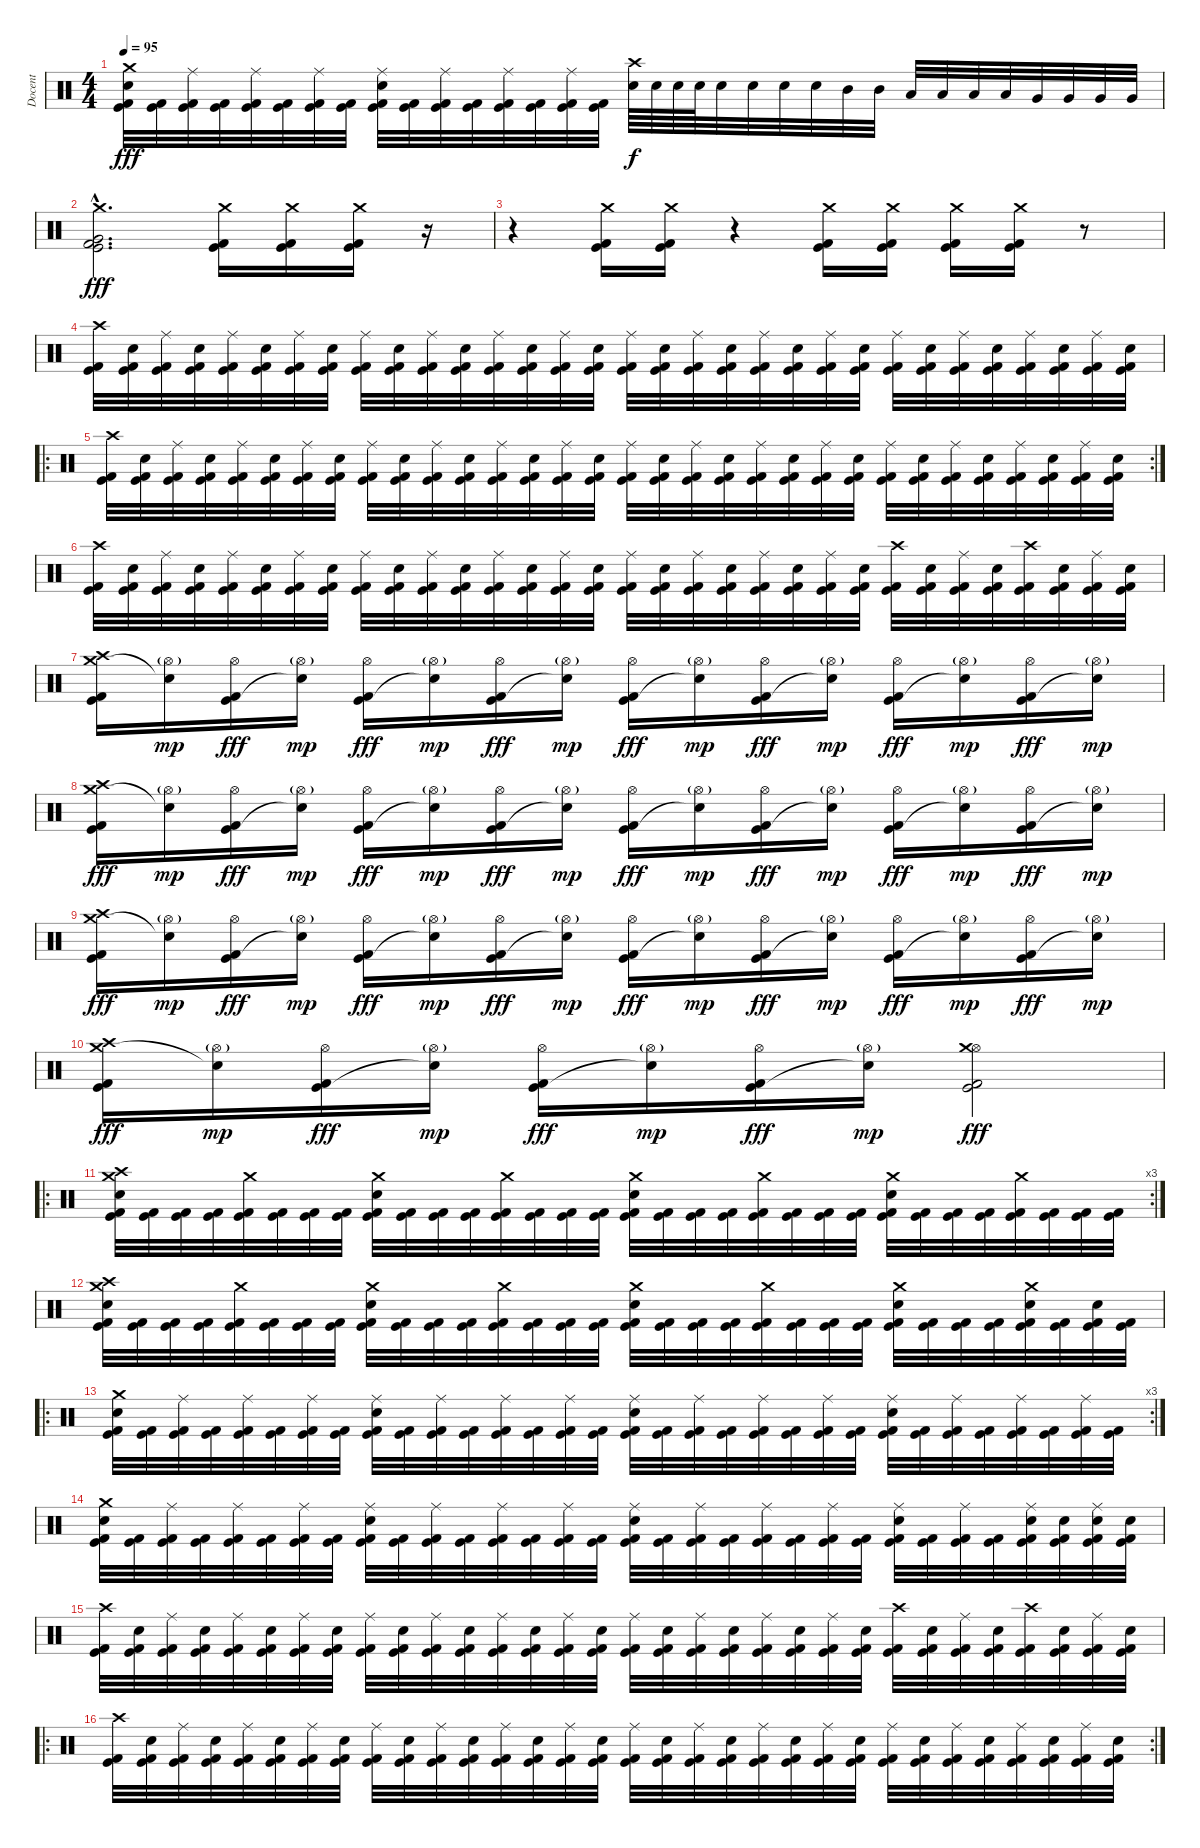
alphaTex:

\track ("Docent" "Docent") {instrument percussion}
\staff {score}
\articulation defaults
\ts (4 4)
\tempo 95
\clef neutral
\ks c
("Crash medium (hit)" "Electric Snare (hit)" "Kick (hit)" "Kick (hit) 2").32{dy fff} ("Kick (hit)" "Kick (hit) 2").32 ("Ride (middle)" "Kick (hit)" "Kick (hit) 2").32 ("Kick (hit)" "Kick (hit) 2").32 ("Ride (middle)" "Kick (hit)" "Kick (hit) 2").32 ("Kick (hit)" "Kick (hit) 2").32 ("Ride (middle)" "Kick (hit)" "Kick (hit) 2").32 ("Kick (hit)" "Kick (hit) 2").32 ("Ride (middle)" "Electric Snare (hit)" "Kick (hit)" "Kick (hit) 2").32 ("Kick (hit)" "Kick (hit) 2").32 ("Ride (middle)" "Kick (hit)" "Kick (hit) 2").32 ("Kick (hit)" "Kick (hit) 2").32 ("Ride (middle)" "Kick (hit)" "Kick (hit) 2").32 ("Kick (hit)" "Kick (hit) 2").32 ("Ride (middle)" "Kick (hit)" "Kick (hit) 2").32 ("Kick (hit)" "Kick (hit) 2").32 ("Crash high (hit)" "Electric Snare (hit)").64{dy f} "Electric Snare (hit)".64 "Electric Snare (hit)".64 "Electric Snare (hit)".64 "Electric Snare (hit)".32 "Electric Snare (hit)".32 "Electric Snare (hit)".32 "Electric Snare (hit)".32 "Mid Tom (hit)".32 "Mid Tom (hit)".32 "Low Tom (hit)".32 "Low Tom (hit)".32 "Low Tom (hit)".32 "Low Tom (hit)".32 "Very Low Tom (hit)".32 "Very Low Tom (hit)".32 "Very Low Tom (hit)".32 "Very Low Tom (hit)".32 |
("Crash medium (hit)"{hac} "Very Low Tom (hit)"{hac} "Kick (hit) 2"{hac} "Kick (hit)"{hac}).2{d dy fff} ("Crash medium (hit)" "Kick (hit)" "Kick (hit) 2").16 ("Crash medium (hit)" "Kick (hit)" "Kick (hit) 2").16 ("Crash medium (hit)" "Kick (hit)" "Kick (hit) 2").16 r.16 |
r.4 ("Kick (hit) 2" "Kick (hit)" "Crash medium (hit)").16 ("Kick (hit) 2" "Kick (hit)" "Crash medium (hit)").16 r.4 ("Crash medium (hit)" "Kick (hit)" "Kick (hit) 2").16 ("Crash medium (hit)" "Kick (hit)" "Kick (hit) 2").16 ("Crash medium (hit)" "Kick (hit)" "Kick (hit) 2").16 ("Crash medium (hit)" "Kick (hit)" "Kick (hit) 2").16 r.8 |
("Crash high (hit)" "Kick (hit)" "Kick (hit) 2").32 ("Electric Snare (hit)" "Kick (hit)" "Kick (hit) 2").32 ("Ride (middle)" "Kick (hit)" "Kick (hit) 2").32 ("Electric Snare (hit)" "Kick (hit)" "Kick (hit) 2").32 ("Ride (middle)" "Kick (hit)" "Kick (hit) 2").32 ("Electric Snare (hit)" "Kick (hit)" "Kick (hit) 2").32 ("Ride (middle)" "Kick (hit)" "Kick (hit) 2").32 ("Electric Snare (hit)" "Kick (hit)" "Kick (hit) 2").32 ("Ride (middle)" "Kick (hit)" "Kick (hit) 2").32 ("Electric Snare (hit)" "Kick (hit)" "Kick (hit) 2").32 ("Ride (middle)" "Kick (hit)" "Kick (hit) 2").32 ("Electric Snare (hit)" "Kick (hit)" "Kick (hit) 2").32 ("Ride (middle)" "Kick (hit)" "Kick (hit) 2").32 ("Electric Snare (hit)" "Kick (hit)" "Kick (hit) 2").32 ("Ride (middle)" "Kick (hit)" "Kick (hit) 2").32 ("Electric Snare (hit)" "Kick (hit)" "Kick (hit) 2").32 ("Ride (middle)" "Kick (hit)" "Kick (hit) 2").32 ("Electric Snare (hit)" "Kick (hit)" "Kick (hit) 2").32 ("Ride (middle)" "Kick (hit)" "Kick (hit) 2").32 ("Electric Snare (hit)" "Kick (hit)" "Kick (hit) 2").32 ("Ride (middle)" "Kick (hit)" "Kick (hit) 2").32 ("Electric Snare (hit)" "Kick (hit)" "Kick (hit) 2").32 ("Ride (middle)" "Kick (hit)" "Kick (hit) 2").32 ("Electric Snare (hit)" "Kick (hit)" "Kick (hit) 2").32 ("Ride (middle)" "Kick (hit)" "Kick (hit) 2").32 ("Electric Snare (hit)" "Kick (hit)" "Kick (hit) 2").32 ("Ride (middle)" "Kick (hit)" "Kick (hit) 2").32 ("Electric Snare (hit)" "Kick (hit)" "Kick (hit) 2").32 ("Ride (middle)" "Kick (hit)" "Kick (hit) 2").32 ("Electric Snare (hit)" "Kick (hit)" "Kick (hit) 2").32 ("Ride (middle)" "Kick (hit)" "Kick (hit) 2").32 ("Electric Snare (hit)" "Kick (hit)" "Kick (hit) 2").32 |
\ro
\rc 2
("Crash high (hit)" "Kick (hit)" "Kick (hit) 2").32 ("Electric Snare (hit)" "Kick (hit)" "Kick (hit) 2").32 ("Ride (middle)" "Kick (hit)" "Kick (hit) 2").32 ("Electric Snare (hit)" "Kick (hit)" "Kick (hit) 2").32 ("Ride (middle)" "Kick (hit)" "Kick (hit) 2").32 ("Electric Snare (hit)" "Kick (hit)" "Kick (hit) 2").32 ("Ride (middle)" "Kick (hit)" "Kick (hit) 2").32 ("Electric Snare (hit)" "Kick (hit)" "Kick (hit) 2").32 ("Ride (middle)" "Kick (hit)" "Kick (hit) 2").32 ("Electric Snare (hit)" "Kick (hit)" "Kick (hit) 2").32 ("Ride (middle)" "Kick (hit)" "Kick (hit) 2").32 ("Electric Snare (hit)" "Kick (hit)" "Kick (hit) 2").32 ("Ride (middle)" "Kick (hit)" "Kick (hit) 2").32 ("Electric Snare (hit)" "Kick (hit)" "Kick (hit) 2").32 ("Ride (middle)" "Kick (hit)" "Kick (hit) 2").32 ("Electric Snare (hit)" "Kick (hit)" "Kick (hit) 2").32 ("Ride (middle)" "Kick (hit)" "Kick (hit) 2").32 ("Electric Snare (hit)" "Kick (hit)" "Kick (hit) 2").32 ("Ride (middle)" "Kick (hit)" "Kick (hit) 2").32 ("Electric Snare (hit)" "Kick (hit)" "Kick (hit) 2").32 ("Ride (middle)" "Kick (hit)" "Kick (hit) 2").32 ("Electric Snare (hit)" "Kick (hit)" "Kick (hit) 2").32 ("Ride (middle)" "Kick (hit)" "Kick (hit) 2").32 ("Electric Snare (hit)" "Kick (hit)" "Kick (hit) 2").32 ("Ride (middle)" "Kick (hit)" "Kick (hit) 2").32 ("Electric Snare (hit)" "Kick (hit)" "Kick (hit) 2").32 ("Ride (middle)" "Kick (hit)" "Kick (hit) 2").32 ("Electric Snare (hit)" "Kick (hit)" "Kick (hit) 2").32 ("Ride (middle)" "Kick (hit)" "Kick (hit) 2").32 ("Electric Snare (hit)" "Kick (hit)" "Kick (hit) 2").32 ("Ride (middle)" "Kick (hit)" "Kick (hit) 2").32 ("Electric Snare (hit)" "Kick (hit)" "Kick (hit) 2").32 |
("Crash high (hit)" "Kick (hit)" "Kick (hit) 2").32 ("Electric Snare (hit)" "Kick (hit)" "Kick (hit) 2").32 ("Ride (middle)" "Kick (hit)" "Kick (hit) 2").32 ("Electric Snare (hit)" "Kick (hit)" "Kick (hit) 2").32 ("Ride (middle)" "Kick (hit)" "Kick (hit) 2").32 ("Electric Snare (hit)" "Kick (hit)" "Kick (hit) 2").32 ("Ride (middle)" "Kick (hit)" "Kick (hit) 2").32 ("Electric Snare (hit)" "Kick (hit)" "Kick (hit) 2").32 ("Ride (middle)" "Kick (hit)" "Kick (hit) 2").32 ("Electric Snare (hit)" "Kick (hit)" "Kick (hit) 2").32 ("Ride (middle)" "Kick (hit)" "Kick (hit) 2").32 ("Electric Snare (hit)" "Kick (hit)" "Kick (hit) 2").32 ("Ride (middle)" "Kick (hit)" "Kick (hit) 2").32 ("Electric Snare (hit)" "Kick (hit)" "Kick (hit) 2").32 ("Ride (middle)" "Kick (hit)" "Kick (hit) 2").32 ("Electric Snare (hit)" "Kick (hit)" "Kick (hit) 2").32 ("Ride (middle)" "Kick (hit)" "Kick (hit) 2").32 ("Electric Snare (hit)" "Kick (hit)" "Kick (hit) 2").32 ("Ride (middle)" "Kick (hit)" "Kick (hit) 2").32 ("Electric Snare (hit)" "Kick (hit)" "Kick (hit) 2").32 ("Ride (middle)" "Kick (hit)" "Kick (hit) 2").32 ("Electric Snare (hit)" "Kick (hit)" "Kick (hit) 2").32 ("Ride (middle)" "Kick (hit)" "Kick (hit) 2").32 ("Electric Snare (hit)" "Kick (hit)" "Kick (hit) 2").32 ("Crash high (hit)" "Kick (hit)" "Kick (hit) 2").32 ("Electric Snare (hit)" "Kick (hit)" "Kick (hit) 2").32 ("Ride (middle)" "Kick (hit)" "Kick (hit) 2").32 ("Electric Snare (hit)" "Kick (hit)" "Kick (hit) 2").32 ("Crash high (hit)" "Kick (hit)" "Kick (hit) 2").32 ("Electric Snare (hit)" "Kick (hit)" "Kick (hit) 2").32 ("Ride (middle)" "Kick (hit)" "Kick (hit) 2").32 ("Electric Snare (hit)" "Kick (hit)" "Kick (hit) 2").32 |
("Crash high (hit)" "Crash medium (hit)" "Kick (hit)" "Kick (hit) 2").16 ("Hi-Hat (open)"{g} "Snare (hit)"{t}).16{dy mp} ("Hi-Hat (open)" "Kick (hit)" "Kick (hit) 2").16{dy fff} ("Hi-Hat (open)"{g} "Snare (hit)"{t}).16{dy mp} ("Hi-Hat (open)" "Kick (hit)" "Kick (hit) 2").16{dy fff} ("Hi-Hat (open)"{g} "Snare (hit)"{t}).16{dy mp} ("Hi-Hat (open)" "Kick (hit)" "Kick (hit) 2").16{dy fff} ("Hi-Hat (open)"{g} "Snare (hit)"{t}).16{dy mp} ("Hi-Hat (open)" "Kick (hit)" "Kick (hit) 2").16{dy fff} ("Hi-Hat (open)"{g} "Snare (hit)"{t}).16{dy mp} ("Hi-Hat (open)" "Kick (hit)" "Kick (hit) 2").16{dy fff} ("Hi-Hat (open)"{g} "Snare (hit)"{t}).16{dy mp} ("Hi-Hat (open)" "Kick (hit)" "Kick (hit) 2").16{dy fff} ("Hi-Hat (open)"{g} "Snare (hit)"{t}).16{dy mp} ("Hi-Hat (open)" "Kick (hit)" "Kick (hit) 2").16{dy fff} ("Hi-Hat (open)"{g} "Snare (hit)"{t}).16{dy mp} |
("Crash high (hit)" "Crash medium (hit)" "Kick (hit)" "Kick (hit) 2").16{dy fff} ("Hi-Hat (open)"{g} "Snare (hit)"{t}).16{dy mp} ("Hi-Hat (open)" "Kick (hit)" "Kick (hit) 2").16{dy fff} ("Hi-Hat (open)"{g} "Snare (hit)"{t}).16{dy mp} ("Hi-Hat (open)" "Kick (hit)" "Kick (hit) 2").16{dy fff} ("Hi-Hat (open)"{g} "Snare (hit)"{t}).16{dy mp} ("Hi-Hat (open)" "Kick (hit)" "Kick (hit) 2").16{dy fff} ("Hi-Hat (open)"{g} "Snare (hit)"{t}).16{dy mp} ("Hi-Hat (open)" "Kick (hit)" "Kick (hit) 2").16{dy fff} ("Hi-Hat (open)"{g} "Snare (hit)"{t}).16{dy mp} ("Hi-Hat (open)" "Kick (hit)" "Kick (hit) 2").16{dy fff} ("Hi-Hat (open)"{g} "Snare (hit)"{t}).16{dy mp} ("Hi-Hat (open)" "Kick (hit)" "Kick (hit) 2").16{dy fff} ("Hi-Hat (open)"{g} "Snare (hit)"{t}).16{dy mp} ("Hi-Hat (open)" "Kick (hit)" "Kick (hit) 2").16{dy fff} ("Hi-Hat (open)"{g} "Snare (hit)"{t}).16{dy mp} |
("Crash high (hit)" "Crash medium (hit)" "Kick (hit)" "Kick (hit) 2").16{dy fff} ("Hi-Hat (open)"{g} "Snare (hit)"{t}).16{dy mp} ("Hi-Hat (open)" "Kick (hit)" "Kick (hit) 2").16{dy fff} ("Hi-Hat (open)"{g} "Snare (hit)"{t}).16{dy mp} ("Hi-Hat (open)" "Kick (hit)" "Kick (hit) 2").16{dy fff} ("Hi-Hat (open)"{g} "Snare (hit)"{t}).16{dy mp} ("Hi-Hat (open)" "Kick (hit)" "Kick (hit) 2").16{dy fff} ("Hi-Hat (open)"{g} "Snare (hit)"{t}).16{dy mp} ("Hi-Hat (open)" "Kick (hit)" "Kick (hit) 2").16{dy fff} ("Hi-Hat (open)"{g} "Snare (hit)"{t}).16{dy mp} ("Hi-Hat (open)" "Kick (hit)" "Kick (hit) 2").16{dy fff} ("Hi-Hat (open)"{g} "Snare (hit)"{t}).16{dy mp} ("Hi-Hat (open)" "Kick (hit)" "Kick (hit) 2").16{dy fff} ("Hi-Hat (open)"{g} "Snare (hit)"{t}).16{dy mp} ("Hi-Hat (open)" "Kick (hit)" "Kick (hit) 2").16{dy fff} ("Hi-Hat (open)"{g} "Snare (hit)"{t}).16{dy mp} |
("Crash high (hit)" "Crash medium (hit)" "Kick (hit)" "Kick (hit) 2").16{dy fff} ("Hi-Hat (open)"{g} "Snare (hit)"{t}).16{dy mp} ("Hi-Hat (open)" "Kick (hit)" "Kick (hit) 2").16{dy fff} ("Hi-Hat (open)"{g} "Snare (hit)"{t}).16{dy mp} ("Hi-Hat (open)" "Kick (hit)" "Kick (hit) 2").16{dy fff} ("Hi-Hat (open)"{g} "Snare (hit)"{t}).16{dy mp} ("Hi-Hat (open)" "Kick (hit)" "Kick (hit) 2").16{dy fff} ("Hi-Hat (open)"{g} "Snare (hit)"{t}).16{dy mp} ("Hi-Hat (open)" "Crash medium (hit)" "Kick (hit)" "Kick (hit) 2").2{dy fff} |
\ro
\rc 3
("Crash medium (hit)" "Crash high (hit)" "Electric Snare (hit)" "Kick (hit)" "Kick (hit) 2").32 ("Kick (hit)" "Kick (hit) 2").32 ("Kick (hit)" "Kick (hit) 2").32 ("Kick (hit)" "Kick (hit) 2").32 ("Crash medium (hit)" "Kick (hit)" "Kick (hit) 2").32 ("Kick (hit)" "Kick (hit) 2").32 ("Kick (hit)" "Kick (hit) 2").32 ("Kick (hit)" "Kick (hit) 2").32 ("Crash medium (hit)" "Electric Snare (hit)" "Kick (hit)" "Kick (hit) 2").32 ("Kick (hit)" "Kick (hit) 2").32 ("Kick (hit)" "Kick (hit) 2").32 ("Kick (hit)" "Kick (hit) 2").32 ("Crash medium (hit)" "Kick (hit)" "Kick (hit) 2").32 ("Kick (hit)" "Kick (hit) 2").32 ("Kick (hit)" "Kick (hit) 2").32 ("Kick (hit)" "Kick (hit) 2").32 ("Crash medium (hit)" "Electric Snare (hit)" "Kick (hit)" "Kick (hit) 2").32 ("Kick (hit)" "Kick (hit) 2").32 ("Kick (hit)" "Kick (hit) 2").32 ("Kick (hit)" "Kick (hit) 2").32 ("Crash medium (hit)" "Kick (hit)" "Kick (hit) 2").32 ("Kick (hit)" "Kick (hit) 2").32 ("Kick (hit)" "Kick (hit) 2").32 ("Kick (hit)" "Kick (hit) 2").32 ("Crash medium (hit)" "Electric Snare (hit)" "Kick (hit)" "Kick (hit) 2").32 ("Kick (hit)" "Kick (hit) 2").32 ("Kick (hit)" "Kick (hit) 2").32 ("Kick (hit)" "Kick (hit) 2").32 ("Crash medium (hit)" "Kick (hit)" "Kick (hit) 2").32 ("Kick (hit)" "Kick (hit) 2").32 ("Kick (hit)" "Kick (hit) 2").32 ("Kick (hit)" "Kick (hit) 2").32 |
("Crash medium (hit)" "Crash high (hit)" "Electric Snare (hit)" "Kick (hit)" "Kick (hit) 2").32 ("Kick (hit)" "Kick (hit) 2").32 ("Kick (hit)" "Kick (hit) 2").32 ("Kick (hit)" "Kick (hit) 2").32 ("Crash medium (hit)" "Kick (hit)" "Kick (hit) 2").32 ("Kick (hit)" "Kick (hit) 2").32 ("Kick (hit)" "Kick (hit) 2").32 ("Kick (hit)" "Kick (hit) 2").32 ("Crash medium (hit)" "Electric Snare (hit)" "Kick (hit)" "Kick (hit) 2").32 ("Kick (hit)" "Kick (hit) 2").32 ("Kick (hit)" "Kick (hit) 2").32 ("Kick (hit)" "Kick (hit) 2").32 ("Crash medium (hit)" "Kick (hit)" "Kick (hit) 2").32 ("Kick (hit)" "Kick (hit) 2").32 ("Kick (hit)" "Kick (hit) 2").32 ("Kick (hit)" "Kick (hit) 2").32 ("Crash medium (hit)" "Electric Snare (hit)" "Kick (hit)" "Kick (hit) 2").32 ("Kick (hit)" "Kick (hit) 2").32 ("Kick (hit)" "Kick (hit) 2").32 ("Kick (hit)" "Kick (hit) 2").32 ("Crash medium (hit)" "Kick (hit)" "Kick (hit) 2").32 ("Kick (hit)" "Kick (hit) 2").32 ("Kick (hit)" "Kick (hit) 2").32 ("Kick (hit)" "Kick (hit) 2").32 ("Crash medium (hit)" "Electric Snare (hit)" "Kick (hit)" "Kick (hit) 2").32 ("Kick (hit)" "Kick (hit) 2").32 ("Kick (hit)" "Kick (hit) 2").32 ("Kick (hit)" "Kick (hit) 2").32 ("Crash medium (hit)" "Electric Snare (hit)" "Kick (hit)" "Kick (hit) 2").32 ("Kick (hit)" "Kick (hit) 2").32 ("Electric Snare (hit)" "Kick (hit)" "Kick (hit) 2").32 ("Kick (hit)" "Kick (hit) 2").32 |
\ro
\rc 3
("Crash medium (hit)" "Electric Snare (hit)" "Kick (hit)" "Kick (hit) 2").32 ("Kick (hit)" "Kick (hit) 2").32 ("Ride (middle)" "Kick (hit)" "Kick (hit) 2").32 ("Kick (hit)" "Kick (hit) 2").32 ("Ride (middle)" "Kick (hit)" "Kick (hit) 2").32 ("Kick (hit)" "Kick (hit) 2").32 ("Ride (middle)" "Kick (hit)" "Kick (hit) 2").32 ("Kick (hit)" "Kick (hit) 2").32 ("Ride (middle)" "Electric Snare (hit)" "Kick (hit)" "Kick (hit) 2").32 ("Kick (hit)" "Kick (hit) 2").32 ("Ride (middle)" "Kick (hit)" "Kick (hit) 2").32 ("Kick (hit)" "Kick (hit) 2").32 ("Ride (middle)" "Kick (hit)" "Kick (hit) 2").32 ("Kick (hit)" "Kick (hit) 2").32 ("Ride (middle)" "Kick (hit)" "Kick (hit) 2").32 ("Kick (hit)" "Kick (hit) 2").32 ("Ride (middle)" "Electric Snare (hit)" "Kick (hit)" "Kick (hit) 2").32 ("Kick (hit)" "Kick (hit) 2").32 ("Ride (middle)" "Kick (hit)" "Kick (hit) 2").32 ("Kick (hit)" "Kick (hit) 2").32 ("Ride (middle)" "Kick (hit)" "Kick (hit) 2").32 ("Kick (hit)" "Kick (hit) 2").32 ("Ride (middle)" "Kick (hit)" "Kick (hit) 2").32 ("Kick (hit)" "Kick (hit) 2").32 ("Ride (middle)" "Electric Snare (hit)" "Kick (hit)" "Kick (hit) 2").32 ("Kick (hit)" "Kick (hit) 2").32 ("Ride (middle)" "Kick (hit)" "Kick (hit) 2").32 ("Kick (hit)" "Kick (hit) 2").32 ("Ride (middle)" "Kick (hit)" "Kick (hit) 2").32 ("Kick (hit)" "Kick (hit) 2").32 ("Ride (middle)" "Kick (hit)" "Kick (hit) 2").32 ("Kick (hit)" "Kick (hit) 2").32 |
("Crash medium (hit)" "Electric Snare (hit)" "Kick (hit)" "Kick (hit) 2").32 ("Kick (hit)" "Kick (hit) 2").32 ("Ride (middle)" "Kick (hit)" "Kick (hit) 2").32 ("Kick (hit)" "Kick (hit) 2").32 ("Ride (middle)" "Kick (hit)" "Kick (hit) 2").32 ("Kick (hit)" "Kick (hit) 2").32 ("Ride (middle)" "Kick (hit)" "Kick (hit) 2").32 ("Kick (hit)" "Kick (hit) 2").32 ("Ride (middle)" "Electric Snare (hit)" "Kick (hit)" "Kick (hit) 2").32 ("Kick (hit)" "Kick (hit) 2").32 ("Ride (middle)" "Kick (hit)" "Kick (hit) 2").32 ("Kick (hit)" "Kick (hit) 2").32 ("Ride (middle)" "Kick (hit)" "Kick (hit) 2").32 ("Kick (hit)" "Kick (hit) 2").32 ("Ride (middle)" "Kick (hit)" "Kick (hit) 2").32 ("Kick (hit)" "Kick (hit) 2").32 ("Ride (middle)" "Electric Snare (hit)" "Kick (hit)" "Kick (hit) 2").32 ("Kick (hit)" "Kick (hit) 2").32 ("Ride (middle)" "Kick (hit)" "Kick (hit) 2").32 ("Kick (hit)" "Kick (hit) 2").32 ("Ride (middle)" "Kick (hit)" "Kick (hit) 2").32 ("Kick (hit)" "Kick (hit) 2").32 ("Ride (middle)" "Kick (hit)" "Kick (hit) 2").32 ("Kick (hit)" "Kick (hit) 2").32 ("Ride (middle)" "Electric Snare (hit)" "Kick (hit)" "Kick (hit) 2").32 ("Kick (hit)" "Kick (hit) 2").32 ("Ride (middle)" "Kick (hit)" "Kick (hit) 2").32 ("Kick (hit)" "Kick (hit) 2").32 ("Ride (middle)" "Electric Snare (hit)" "Kick (hit)" "Kick (hit) 2").32 ("Electric Snare (hit)" "Kick (hit)" "Kick (hit) 2").32 ("Ride (middle)" "Electric Snare (hit)" "Kick (hit)" "Kick (hit) 2").32 ("Electric Snare (hit)" "Kick (hit)" "Kick (hit) 2").32 |
("Crash high (hit)" "Kick (hit)" "Kick (hit) 2").32 ("Electric Snare (hit)" "Kick (hit)" "Kick (hit) 2").32 ("Ride (middle)" "Kick (hit)" "Kick (hit) 2").32 ("Electric Snare (hit)" "Kick (hit)" "Kick (hit) 2").32 ("Ride (middle)" "Kick (hit)" "Kick (hit) 2").32 ("Electric Snare (hit)" "Kick (hit)" "Kick (hit) 2").32 ("Ride (middle)" "Kick (hit)" "Kick (hit) 2").32 ("Electric Snare (hit)" "Kick (hit)" "Kick (hit) 2").32 ("Ride (middle)" "Kick (hit)" "Kick (hit) 2").32 ("Electric Snare (hit)" "Kick (hit)" "Kick (hit) 2").32 ("Ride (middle)" "Kick (hit)" "Kick (hit) 2").32 ("Electric Snare (hit)" "Kick (hit)" "Kick (hit) 2").32 ("Ride (middle)" "Kick (hit)" "Kick (hit) 2").32 ("Electric Snare (hit)" "Kick (hit)" "Kick (hit) 2").32 ("Ride (middle)" "Kick (hit)" "Kick (hit) 2").32 ("Electric Snare (hit)" "Kick (hit)" "Kick (hit) 2").32 ("Ride (middle)" "Kick (hit)" "Kick (hit) 2").32 ("Electric Snare (hit)" "Kick (hit)" "Kick (hit) 2").32 ("Ride (middle)" "Kick (hit)" "Kick (hit) 2").32 ("Electric Snare (hit)" "Kick (hit)" "Kick (hit) 2").32 ("Ride (middle)" "Kick (hit)" "Kick (hit) 2").32 ("Electric Snare (hit)" "Kick (hit)" "Kick (hit) 2").32 ("Ride (middle)" "Kick (hit)" "Kick (hit) 2").32 ("Electric Snare (hit)" "Kick (hit)" "Kick (hit) 2").32 ("Crash high (hit)" "Kick (hit)" "Kick (hit) 2").32 ("Electric Snare (hit)" "Kick (hit)" "Kick (hit) 2").32 ("Ride (middle)" "Kick (hit)" "Kick (hit) 2").32 ("Electric Snare (hit)" "Kick (hit)" "Kick (hit) 2").32 ("Crash high (hit)" "Kick (hit)" "Kick (hit) 2").32 ("Electric Snare (hit)" "Kick (hit)" "Kick (hit) 2").32 ("Ride (middle)" "Kick (hit)" "Kick (hit) 2").32 ("Electric Snare (hit)" "Kick (hit)" "Kick (hit) 2").32 |
\ro
\rc 2
("Crash high (hit)" "Kick (hit)" "Kick (hit) 2").32 ("Electric Snare (hit)" "Kick (hit)" "Kick (hit) 2").32 ("Ride (middle)" "Kick (hit)" "Kick (hit) 2").32 ("Electric Snare (hit)" "Kick (hit)" "Kick (hit) 2").32 ("Ride (middle)" "Kick (hit)" "Kick (hit) 2").32 ("Electric Snare (hit)" "Kick (hit)" "Kick (hit) 2").32 ("Ride (middle)" "Kick (hit)" "Kick (hit) 2").32 ("Electric Snare (hit)" "Kick (hit)" "Kick (hit) 2").32 ("Ride (middle)" "Kick (hit)" "Kick (hit) 2").32 ("Electric Snare (hit)" "Kick (hit)" "Kick (hit) 2").32 ("Ride (middle)" "Kick (hit)" "Kick (hit) 2").32 ("Electric Snare (hit)" "Kick (hit)" "Kick (hit) 2").32 ("Ride (middle)" "Kick (hit)" "Kick (hit) 2").32 ("Electric Snare (hit)" "Kick (hit)" "Kick (hit) 2").32 ("Ride (middle)" "Kick (hit)" "Kick (hit) 2").32 ("Electric Snare (hit)" "Kick (hit)" "Kick (hit) 2").32 ("Ride (middle)" "Kick (hit)" "Kick (hit) 2").32 ("Electric Snare (hit)" "Kick (hit)" "Kick (hit) 2").32 ("Ride (middle)" "Kick (hit)" "Kick (hit) 2").32 ("Electric Snare (hit)" "Kick (hit)" "Kick (hit) 2").32 ("Ride (middle)" "Kick (hit)" "Kick (hit) 2").32 ("Electric Snare (hit)" "Kick (hit)" "Kick (hit) 2").32 ("Ride (middle)" "Kick (hit)" "Kick (hit) 2").32 ("Electric Snare (hit)" "Kick (hit)" "Kick (hit) 2").32 ("Ride (middle)" "Kick (hit)" "Kick (hit) 2").32 ("Electric Snare (hit)" "Kick (hit)" "Kick (hit) 2").32 ("Ride (middle)" "Kick (hit)" "Kick (hit) 2").32 ("Electric Snare (hit)" "Kick (hit)" "Kick (hit) 2").32 ("Ride (middle)" "Kick (hit)" "Kick (hit) 2").32 ("Electric Snare (hit)" "Kick (hit)" "Kick (hit) 2").32 ("Ride (middle)" "Kick (hit)" "Kick (hit) 2").32 ("Electric Snare (hit)" "Kick (hit)" "Kick (hit) 2").32
